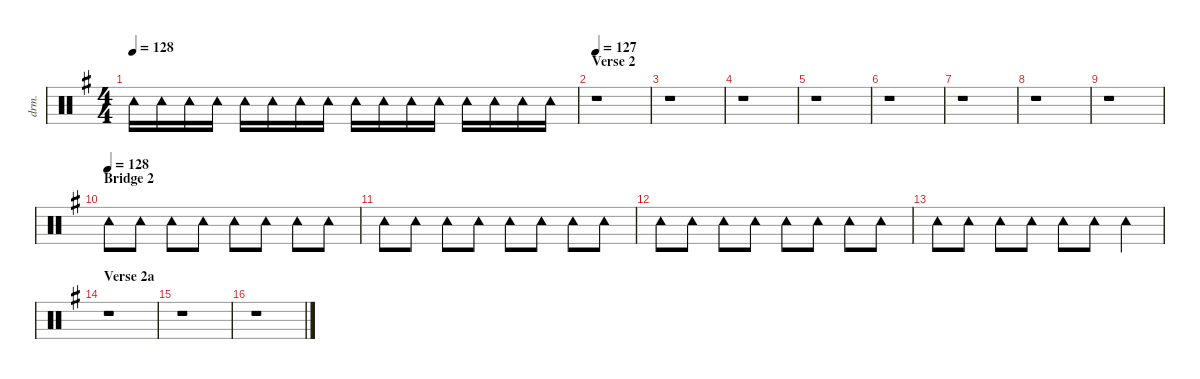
\defaultSystemsLayout 4
\hideDynamics
\bracketExtendMode nobrackets
\otherSystemsTrackNameOrientation horizontal
\track ("Percussion" "drm.") {defaultSystemsLayout 8 instrument percussion}
\staff {score}
\articulation defaults
\ts (4 4)
\tempo 128
\clef neutral
\ks eminor "Tambourine (hit)"{acc forcenatural}.16{dy f beam Down} "Tambourine (hit)"{acc forcenatural}.16{beam Down} "Tambourine (hit)"{acc forcenatural}.16{beam Down} "Tambourine (hit)"{acc forcenatural}.16{beam Down} "Tambourine (hit)"{acc forcenatural}.16{dy fff beam Down} "Tambourine (hit)"{acc forcenatural}.16{dy f beam Down} "Tambourine (hit)"{acc forcenatural}.16{beam Down} "Tambourine (hit)"{acc forcenatural}.16{beam Down} "Tambourine (hit)"{acc forcenatural}.16{beam Down} "Tambourine (hit)"{acc forcenatural}.16{beam Down} "Tambourine (hit)"{acc forcenatural}.16{beam Down} "Tambourine (hit)"{acc forcenatural}.16{beam Down} "Tambourine (hit)"{acc forcenatural}.16{dy fff beam Down} "Tambourine (hit)"{acc forcenatural}.16{dy f beam Down} "Tambourine (hit)"{acc forcenatural}.16{beam Down} "Tambourine (hit)"{acc forcenatural}.16{beam Down}
|
\section ("" "Verse 2")
\tempo 127
r.1{beam Down} |
r.1{beam Down} |
r.1{beam Down} |
r.1{beam Down} |
r.1{beam Down} |
r.1{beam Down} |
r.1{beam Down} |
r.1{beam Down} |
\section ("" "Bridge 2")
\tempo (128)
"Tambourine (hit)"{acc forcenatural}.8{beam Down} "Tambourine (hit)"{acc forcenatural}.8{beam Down} "Tambourine (hit)"{acc forcenatural}.8{dy fff beam Down} "Tambourine (hit)"{acc forcenatural}.8{dy f beam Down} "Tambourine (hit)"{acc forcenatural}.8{beam Down} "Tambourine (hit)"{acc forcenatural}.8{beam Down} "Tambourine (hit)"{acc forcenatural}.8{dy fff beam Down} "Tambourine (hit)"{acc forcenatural}.8{dy f beam Down} |
"Tambourine (hit)"{acc forcenatural}.8{beam Down} "Tambourine (hit)"{acc forcenatural}.8{beam Down} "Tambourine (hit)"{acc forcenatural}.8{dy fff beam Down} "Tambourine (hit)"{acc forcenatural}.8{dy f beam Down} "Tambourine (hit)"{acc forcenatural}.8{beam Down} "Tambourine (hit)"{acc forcenatural}.8{beam Down} "Tambourine (hit)"{acc forcenatural}.8{dy fff beam Down} "Tambourine (hit)"{acc forcenatural}.8{dy f beam Down} |
"Tambourine (hit)"{acc forcenatural}.8{beam Down} "Tambourine (hit)"{acc forcenatural}.8{beam Down} "Tambourine (hit)"{acc forcenatural}.8{dy fff beam Down} "Tambourine (hit)"{acc forcenatural}.8{dy f beam Down} "Tambourine (hit)"{acc forcenatural}.8{beam Down} "Tambourine (hit)"{acc forcenatural}.8{beam Down} "Tambourine (hit)"{acc forcenatural}.8{dy fff beam Down} "Tambourine (hit)"{acc forcenatural}.8{dy f beam Down} |
"Tambourine (hit)"{acc forcenatural}.8{beam Down} "Tambourine (hit)"{acc forcenatural}.8{beam Down} "Tambourine (hit)"{acc forcenatural}.8{dy fff beam Down} "Tambourine (hit)"{acc forcenatural}.8{dy f beam Down} "Tambourine (hit)"{acc forcenatural}.8{beam Down} "Tambourine (hit)"{acc forcenatural}.8{beam Down} "Tambourine (hit)"{acc forcenatural}.4{dy fff beam Down} |
\section ("" "Verse 2a")
r.1{beam Down} |
r.1{beam Down} |
r.1{beam Down}
